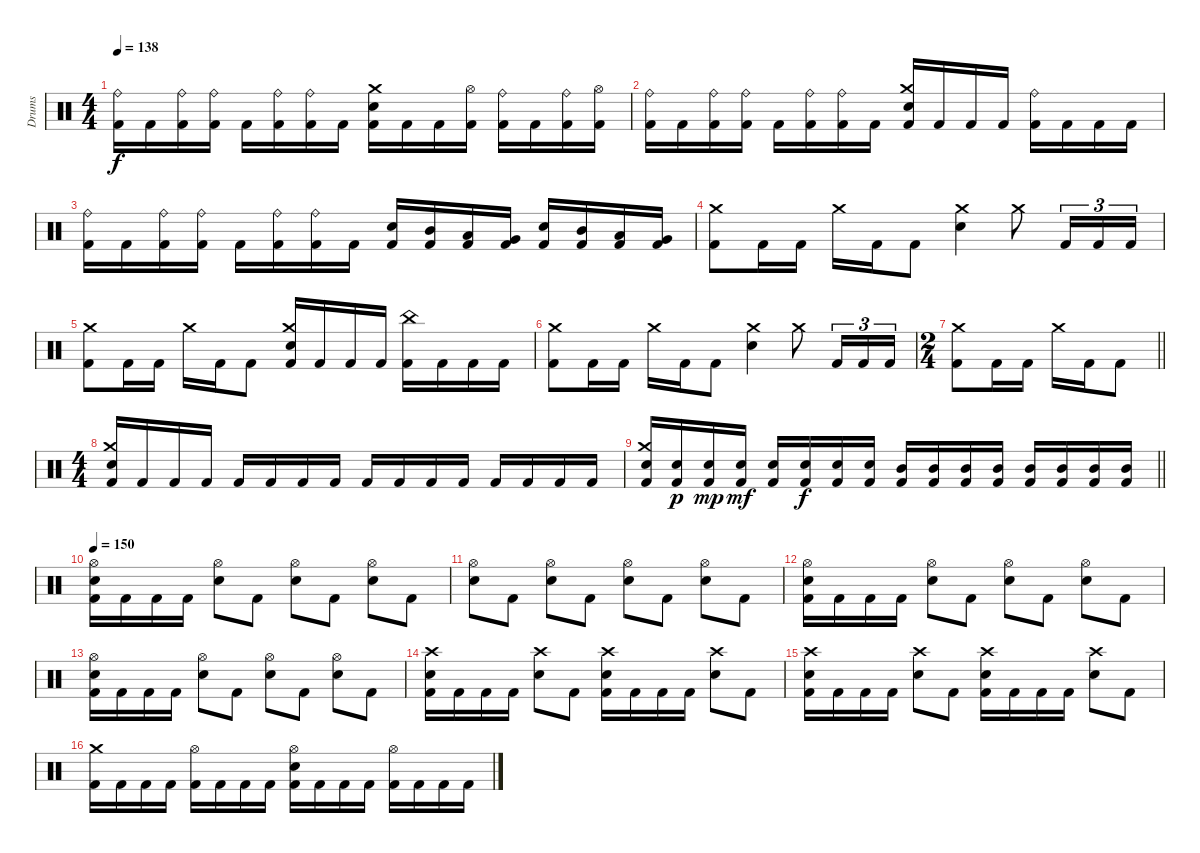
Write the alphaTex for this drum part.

\track ("Drums" "Drums") {instrument percussion}
\staff {score}
\articulation defaults
\ts (4 4)
\tempo 138
\clef neutral
\ks c
("Ride (bell)" "Kick (hit) 2").16{dy f} "Kick (hit) 2".16 ("Ride (bell)" "Kick (hit) 2").16 ("Ride (bell)" "Kick (hit) 2").16 "Kick (hit) 2".16 ("Ride (bell)" "Kick (hit) 2").16 ("Ride (bell)" "Kick (hit) 2").16 "Kick (hit) 2".16 ("Crash medium (hit)" "Electric Snare (hit)" "Kick (hit) 2").16 "Kick (hit) 2".16 "Kick (hit) 2".16 ("Hi-Hat (open)" "Kick (hit) 2").16 ("Ride (bell)" "Kick (hit) 2").16 "Kick (hit) 2".16 ("Ride (bell)" "Kick (hit) 2").16 ("Hi-Hat (open)" "Kick (hit) 2").16 |
("Ride (bell)" "Kick (hit) 2").16 "Kick (hit) 2".16 ("Ride (bell)" "Kick (hit) 2").16 ("Ride (bell)" "Kick (hit) 2").16 "Kick (hit) 2".16 ("Ride (bell)" "Kick (hit) 2").16 ("Ride (bell)" "Kick (hit) 2").16 "Kick (hit) 2".16 ("Crash medium (hit)" "Electric Snare (hit)" "Kick (hit) 2").16 "Kick (hit) 2".16 "Kick (hit) 2".16 "Kick (hit) 2".16 ("Ride (bell)" "Kick (hit) 2").16 "Kick (hit) 2".16 "Kick (hit) 2".16 "Kick (hit) 2".16 |
("Ride (bell)" "Kick (hit) 2").16 "Kick (hit) 2".16 ("Ride (bell)" "Kick (hit) 2").16 ("Ride (bell)" "Kick (hit) 2").16 "Kick (hit) 2".16 ("Ride (bell)" "Kick (hit) 2").16 ("Ride (bell)" "Kick (hit) 2").16 "Kick (hit) 2".16 ("Electric Snare (hit)" "Kick (hit) 2").16 ("Mid Tom (hit)" "Kick (hit) 2").16 ("Low Tom (hit)" "Kick (hit) 2").16 ("Very Low Tom (hit)" "Kick (hit) 2").16 ("Electric Snare (hit)" "Kick (hit) 2").16 ("Mid Tom (hit)" "Kick (hit) 2").16 ("Low Tom (hit)" "Kick (hit) 2").16 ("Very Low Tom (hit)" "Kick (hit) 2").16 |
("Crash medium (hit)" "Kick (hit) 2").8 "Kick (hit) 2".16 "Kick (hit) 2".16 "Crash medium (hit)".16 "Kick (hit) 2".16 "Kick (hit) 2".8 ("Crash medium (hit)" "Electric Snare (hit)").4 "Crash medium (hit)".8 "Kick (hit) 2".16{tu (3 2)} "Kick (hit) 2".16{tu (3 2)} "Kick (hit) 2".16{tu (3 2)} |
("Crash medium (hit)" "Kick (hit) 2").8 "Kick (hit) 2".16 "Kick (hit) 2".16 "Crash medium (hit)".16 "Kick (hit) 2".16 "Kick (hit) 2".8 ("Crash medium (hit)" "Electric Snare (hit)" "Kick (hit) 2").16 "Kick (hit) 2".16 "Kick (hit) 2".16 "Kick (hit) 2".16 ("China (hit)" "Kick (hit) 2").16 "Kick (hit) 2".16 "Kick (hit) 2".16 "Kick (hit) 2".16 |
("Crash medium (hit)" "Kick (hit) 2").8 "Kick (hit) 2".16 "Kick (hit) 2".16 "Crash medium (hit)".16 "Kick (hit) 2".16 "Kick (hit) 2".8 ("Crash medium (hit)" "Electric Snare (hit)").4 "Crash medium (hit)".8 "Kick (hit) 2".16{tu (3 2)} "Kick (hit) 2".16{tu (3 2)} "Kick (hit) 2".16{tu (3 2)} |
\ts (2 4)
\barLineRight lightlight
("Crash medium (hit)" "Kick (hit) 2").8 "Kick (hit) 2".16 "Kick (hit) 2".16 "Crash medium (hit)".16 "Kick (hit) 2".16 "Kick (hit) 2".8 |
\ts (4 4)
("Crash medium (hit)" "Electric Snare (hit)" "Kick (hit) 2").16 "Kick (hit) 2".16 "Kick (hit) 2".16 "Kick (hit) 2".16 "Kick (hit) 2".16 "Kick (hit) 2".16 "Kick (hit) 2".16 "Kick (hit) 2".16 "Kick (hit) 2".16 "Kick (hit) 2".16 "Kick (hit) 2".16 "Kick (hit) 2".16 "Kick (hit) 2".16 "Kick (hit) 2".16 "Kick (hit) 2".16 "Kick (hit) 2".16 |
\barLineRight lightlight
("Crash medium (hit)" "Electric Snare (hit)" "Kick (hit) 2").16 ("Electric Snare (hit)" "Kick (hit) 2").16{dy p} ("Electric Snare (hit)" "Kick (hit) 2").16{dy mp} ("Electric Snare (hit)" "Kick (hit) 2").16{dy mf} ("Electric Snare (hit)" "Kick (hit) 2").16 ("Electric Snare (hit)" "Kick (hit) 2").16{dy f} ("Electric Snare (hit)" "Kick (hit) 2").16 ("Electric Snare (hit)" "Kick (hit) 2").16 ("Mid Tom (hit)" "Kick (hit) 2").16 ("Mid Tom (hit)" "Kick (hit) 2").16 ("Mid Tom (hit)" "Kick (hit) 2").16 ("Mid Tom (hit)" "Kick (hit) 2").16 ("Mid Tom (hit)" "Kick (hit) 2").16 ("Mid Tom (hit)" "Kick (hit) 2").16 ("Mid Tom (hit)" "Kick (hit) 2").16 ("Mid Tom (hit)" "Kick (hit) 2").16 |
\tempo 150
("Hi-Hat (open)" "Electric Snare (hit)" "Kick (hit) 2").16 "Kick (hit) 2".16 "Kick (hit) 2".16 "Kick (hit) 2".16 ("Hi-Hat (open)" "Electric Snare (hit)").8 "Kick (hit) 2".8 ("Hi-Hat (open)" "Electric Snare (hit)").8 "Kick (hit) 2".8 ("Hi-Hat (open)" "Electric Snare (hit)").8 "Kick (hit) 2".8 |
("Hi-Hat (open)" "Electric Snare (hit)").8 "Kick (hit) 2".8 ("Hi-Hat (open)" "Electric Snare (hit)").8 "Kick (hit) 2".8 ("Hi-Hat (open)" "Electric Snare (hit)").8 "Kick (hit) 2".8 ("Hi-Hat (open)" "Electric Snare (hit)").8 "Kick (hit) 2".8 |
("Hi-Hat (open)" "Electric Snare (hit)" "Kick (hit) 2").16 "Kick (hit) 2".16 "Kick (hit) 2".16 "Kick (hit) 2".16 ("Hi-Hat (open)" "Electric Snare (hit)").8 "Kick (hit) 2".8 ("Hi-Hat (open)" "Electric Snare (hit)").8 "Kick (hit) 2".8 ("Hi-Hat (open)" "Electric Snare (hit)").8 "Kick (hit) 2".8 |
("Hi-Hat (open)" "Electric Snare (hit)" "Kick (hit) 2").16 "Kick (hit) 2".16 "Kick (hit) 2".16 "Kick (hit) 2".16 ("Hi-Hat (open)" "Electric Snare (hit)").8 "Kick (hit) 2".8 ("Hi-Hat (open)" "Electric Snare (hit)").8 "Kick (hit) 2".8 ("Hi-Hat (open)" "Electric Snare (hit)").8 "Kick (hit) 2".8 |
("Crash high (hit)" "Electric Snare (hit)" "Kick (hit) 2").16 "Kick (hit) 2".16 "Kick (hit) 2".16 "Kick (hit) 2".16 ("Crash high (hit)" "Electric Snare (hit)").8 "Kick (hit) 2".8 ("Crash high (hit)" "Electric Snare (hit)" "Kick (hit) 2").16 "Kick (hit) 2".16 "Kick (hit) 2".16 "Kick (hit) 2".16 ("Crash high (hit)" "Electric Snare (hit)").8 "Kick (hit) 2".8 |
("Crash high (hit)" "Electric Snare (hit)" "Kick (hit) 2").16 "Kick (hit) 2".16 "Kick (hit) 2".16 "Kick (hit) 2".16 ("Crash high (hit)" "Electric Snare (hit)").8 "Kick (hit) 2".8 ("Crash high (hit)" "Electric Snare (hit)" "Kick (hit) 2").16 "Kick (hit) 2".16 "Kick (hit) 2".16 "Kick (hit) 2".16 ("Crash high (hit)" "Electric Snare (hit)").8 "Kick (hit) 2".8 |
("Crash medium (hit)" "Kick (hit) 2").16 "Kick (hit) 2".16 "Kick (hit) 2".16 "Kick (hit) 2".16 ("Hi-Hat (open)" "Kick (hit) 2").16 "Kick (hit) 2".16 "Kick (hit) 2".16 "Kick (hit) 2".16 ("Hi-Hat (open)" "Electric Snare (hit)" "Kick (hit) 2").16 "Kick (hit) 2".16 "Kick (hit) 2".16 "Kick (hit) 2".16 ("Hi-Hat (open)" "Kick (hit) 2").16 "Kick (hit) 2".16 "Kick (hit) 2".16 "Kick (hit) 2".16
